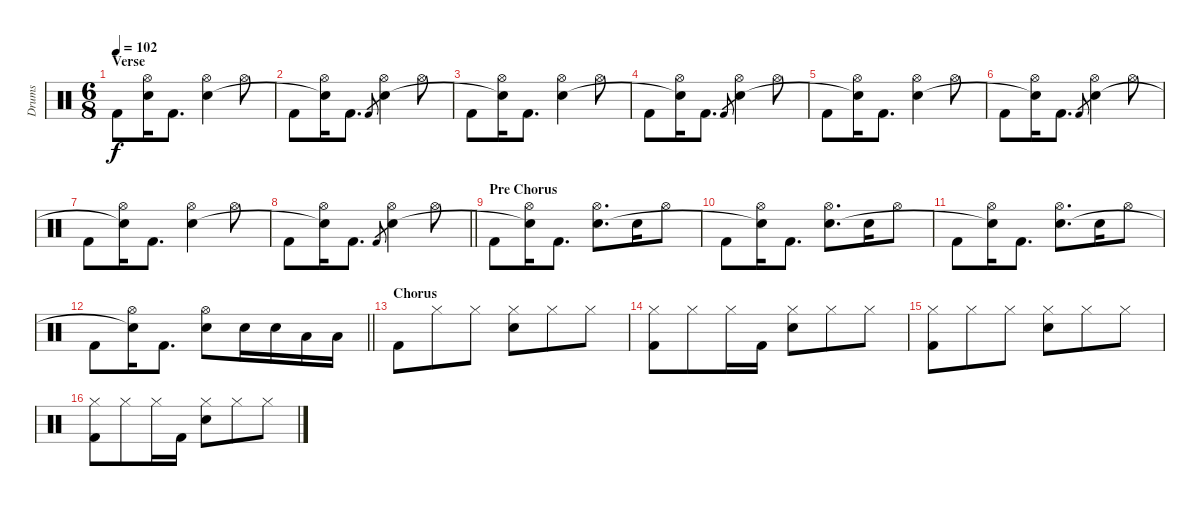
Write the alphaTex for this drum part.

\track ("Drums" "Drums") {instrument percussion}
\staff {score}
\articulation defaults
\ts (6 8)
\section ("" "Verse")
\tempo 102
\clef neutral
\ks aminor "Kick (hit) 2".8{dy f}
("Hi-Hat (open)" "Snare (hit)"{t}).16 "Kick (hit) 2".8{d} ("Hi-Hat (open)" "Snare (hit) 2").4 "Hi-Hat (open)".8 |
"Kick (hit) 2".8 ("Hi-Hat (open)" "Snare (hit)"{t}).16 "Kick (hit) 2".8{d} "Kick (hit) 2".8{gr} ("Hi-Hat (open)" "Snare (hit) 2").4 "Hi-Hat (open)".8 |
"Kick (hit) 2".8 ("Hi-Hat (open)" "Snare (hit)"{t}).16 "Kick (hit) 2".8{d} ("Hi-Hat (open)" "Snare (hit) 2").4 "Hi-Hat (open)".8 |
"Kick (hit) 2".8 ("Hi-Hat (open)" "Snare (hit)"{t}).16 "Kick (hit) 2".8{d} "Kick (hit) 2".8{gr} ("Hi-Hat (open)" "Snare (hit) 2").4 "Hi-Hat (open)".8 |
"Kick (hit) 2".8 ("Hi-Hat (open)" "Snare (hit)"{t}).16 "Kick (hit) 2".8{d} ("Hi-Hat (open)" "Snare (hit) 2").4 "Hi-Hat (open)".8 |
"Kick (hit) 2".8 ("Hi-Hat (open)" "Snare (hit)"{t}).16 "Kick (hit) 2".8{d} "Kick (hit) 2".8{gr} ("Hi-Hat (open)" "Snare (hit) 2").4 "Hi-Hat (open)".8 |
"Kick (hit) 2".8 ("Hi-Hat (open)" "Snare (hit)"{t}).16 "Kick (hit) 2".8{d} ("Hi-Hat (open)" "Snare (hit) 2").4 "Hi-Hat (open)".8 |
\barLineRight lightlight "Kick (hit) 2".8
("Hi-Hat (open)" "Snare (hit)"{t}).16 "Kick (hit) 2".8{d} "Kick (hit) 2".8{gr} ("Hi-Hat (open)" "Snare (hit) 2").4 "Hi-Hat (open)".8 |
\section ("" "Pre Chorus")
"Kick (hit) 2".8 ("Hi-Hat (open)" "Snare (hit)"{t}).16 "Kick (hit) 2".8{d} ("Hi-Hat (open)" "Snare (hit) 2").8{d} "Snare (hit) 2".16 "Hi-Hat (open)".8 |
"Kick (hit) 2".8 ("Hi-Hat (open)" "Snare (hit)"{t}).16 "Kick (hit) 2".8{d} ("Hi-Hat (open)" "Snare (hit) 2").8{d} "Snare (hit) 2".16 "Hi-Hat (open)".8 |
"Kick (hit) 2".8 ("Hi-Hat (open)" "Snare (hit)"{t}).16 "Kick (hit) 2".8{d} ("Hi-Hat (open)" "Snare (hit) 2").8{d} "Snare (hit) 2".16 "Hi-Hat (open)".8 |
\barLineRight lightlight "Kick (hit) 2".8
("Hi-Hat (open)" "Snare (hit)"{t}).16 "Kick (hit) 2".8{d} ("Hi-Hat (open)" "Snare (hit) 2").8 "Snare (hit) 2".16 "Snare (hit) 2".16 "Low Tom (hit)".16 "Low Tom (hit)".16 |
\section ("" "Chorus")
"Kick (hit) 2".8 "Hi-Hat (closed)".8 "Hi-Hat (closed)".8 ("Hi-Hat (closed)" "Snare (hit) 2").8 "Hi-Hat (closed)".8 "Hi-Hat (closed)".8 |
("Hi-Hat (closed)" "Kick (hit) 2").8 "Hi-Hat (closed)".8 "Hi-Hat (closed)".16 "Kick (hit) 2".16 ("Hi-Hat (closed)" "Snare (hit) 2").8 "Hi-Hat (closed)".8 "Hi-Hat (closed)".8 |
("Hi-Hat (closed)" "Kick (hit) 2").8 "Hi-Hat (closed)".8 "Hi-Hat (closed)".8 ("Hi-Hat (closed)" "Snare (hit) 2").8 "Hi-Hat (closed)".8 "Hi-Hat (closed)".8 |
("Hi-Hat (closed)" "Kick (hit) 2").8 "Hi-Hat (closed)".8 "Hi-Hat (closed)".16 "Kick (hit) 2".16 ("Hi-Hat (closed)" "Snare (hit) 2").8 "Hi-Hat (closed)".8 "Hi-Hat (closed)".8
